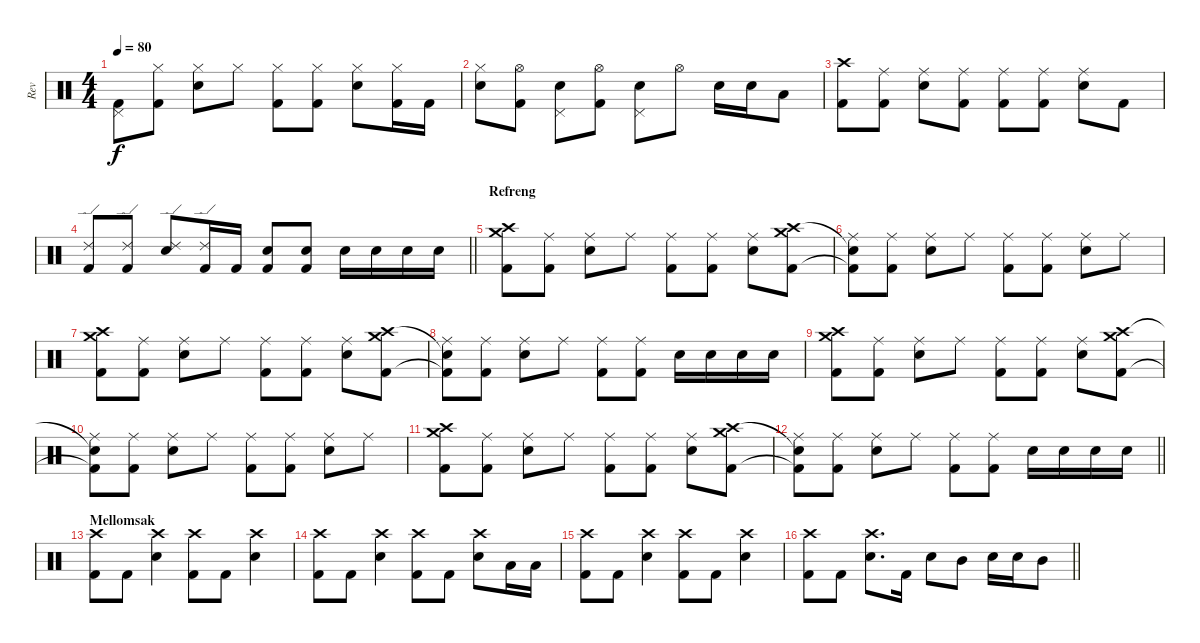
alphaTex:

\track ("Rev" "Rev") {instrument percussion}
\staff {score}
\articulation defaults
\ts (4 4)
\tempo 80
\clef neutral
\ks c
("Pedal Hi-Hat (hit)" "Kick (hit) 2").8{dy f} ("Hi-Hat (closed)" "Kick (hit) 2").8 ("Hi-Hat (closed)" "Electric Snare (hit)").8 "Hi-Hat (closed)".8 ("Hi-Hat (closed)" "Kick (hit) 2").8 ("Hi-Hat (closed)" "Kick (hit) 2").8 ("Hi-Hat (closed)" "Electric Snare (hit)").8 ("Hi-Hat (closed)" "Kick (hit) 2").16 "Kick (hit) 2".16 |
("Hi-Hat (closed)" "Electric Snare (hit)").8 ("Hi-Hat (open)" "Kick (hit) 2").8 ("Pedal Hi-Hat (hit)" "Electric Snare (hit)").8 ("Hi-Hat (open)" "Kick (hit) 2").8 ("Pedal Hi-Hat (hit)" "Electric Snare (hit)").8 "Hi-Hat (open)".8 "Electric Snare (hit)".16 "Electric Snare (hit)".16 "Low Tom (hit)".8 |
("Crash high (hit)" "Kick (hit) 2").8 ("Ride (middle)" "Kick (hit) 2").8 ("Ride (middle)" "Electric Snare (hit)").8 ("Ride (middle)" "Kick (hit) 2").8 ("Ride (middle)" "Kick (hit) 2").8 ("Ride (middle)" "Kick (hit) 2").8 ("Ride (middle)" "Electric Snare (hit)").8 "Kick (hit) 2".8 |
\barLineRight lightlight
("Ride (edge) 2" "Kick (hit) 2").8 ("Ride (edge) 2" "Kick (hit) 2").8 ("Ride (edge) 2" "Electric Snare (hit)").8 ("Ride (edge) 2" "Kick (hit) 2").16 "Kick (hit) 2".16 ("Electric Snare (hit)" "Kick (hit) 2").8 ("Electric Snare (hit)" "Kick (hit) 2").8 "Electric Snare (hit)".16 "Electric Snare (hit)".16 "Electric Snare (hit)".16 "Electric Snare (hit)".16 |
\section ("" "Refreng")
("Crash high (hit)" "Crash medium (hit)" "Kick (hit) 2").8 ("Ride (middle)" "Kick (hit) 2").8 ("Ride (middle)" "Electric Snare (hit)").8 "Ride (middle)".8 ("Ride (middle)" "Kick (hit) 2").8 ("Ride (middle)" "Kick (hit) 2").8 ("Ride (middle)" "Electric Snare (hit)").8 ("Crash high (hit)" "Crash medium (hit)" "Kick (hit) 2").8 |
("Snare (hit)"{t} "Ride (middle)" "Kick (hit) 2"{t}).8 ("Ride (middle)" "Kick (hit) 2").8 ("Ride (middle)" "Electric Snare (hit)").8 "Ride (middle)".8 ("Ride (middle)" "Kick (hit) 2").8 ("Ride (middle)" "Kick (hit) 2").8 ("Ride (middle)" "Electric Snare (hit)").8 "Ride (middle)".8 |
("Crash high (hit)" "Crash medium (hit)" "Kick (hit) 2").8 ("Ride (middle)" "Kick (hit) 2").8 ("Ride (middle)" "Electric Snare (hit)").8 "Ride (middle)".8 ("Ride (middle)" "Kick (hit) 2").8 ("Ride (middle)" "Kick (hit) 2").8 ("Ride (middle)" "Electric Snare (hit)").8 ("Crash high (hit)" "Crash medium (hit)" "Kick (hit) 2").8 |
("Snare (hit)"{t} "Ride (middle)" "Kick (hit) 2"{t}).8 ("Ride (middle)" "Kick (hit) 2").8 ("Ride (middle)" "Electric Snare (hit)").8 "Ride (middle)".8 ("Ride (middle)" "Kick (hit) 2").8 ("Ride (middle)" "Kick (hit) 2").8 "Electric Snare (hit)".16 "Electric Snare (hit)".16 "Electric Snare (hit)".16 "Electric Snare (hit)".16 |
("Crash high (hit)" "Crash medium (hit)" "Kick (hit) 2").8 ("Ride (middle)" "Kick (hit) 2").8 ("Ride (middle)" "Electric Snare (hit)").8 "Ride (middle)".8 ("Ride (middle)" "Kick (hit) 2").8 ("Ride (middle)" "Kick (hit) 2").8 ("Ride (middle)" "Electric Snare (hit)").8 ("Crash high (hit)" "Crash medium (hit)" "Kick (hit) 2").8 |
("Snare (hit)"{t} "Ride (middle)" "Kick (hit) 2"{t}).8 ("Ride (middle)" "Kick (hit) 2").8 ("Ride (middle)" "Electric Snare (hit)").8 "Ride (middle)".8 ("Ride (middle)" "Kick (hit) 2").8 ("Ride (middle)" "Kick (hit) 2").8 ("Ride (middle)" "Electric Snare (hit)").8 "Ride (middle)".8 |
("Crash high (hit)" "Crash medium (hit)" "Kick (hit) 2").8 ("Ride (middle)" "Kick (hit) 2").8 ("Ride (middle)" "Electric Snare (hit)").8 "Ride (middle)".8 ("Ride (middle)" "Kick (hit) 2").8 ("Ride (middle)" "Kick (hit) 2").8 ("Ride (middle)" "Electric Snare (hit)").8 ("Crash high (hit)" "Crash medium (hit)" "Kick (hit) 2").8 |
\barLineRight lightlight
("Snare (hit)"{t} "Ride (middle)" "Kick (hit) 2"{t}).8 ("Ride (middle)" "Kick (hit) 2").8 ("Ride (middle)" "Electric Snare (hit)").8 "Ride (middle)".8 ("Ride (middle)" "Kick (hit) 2").8 ("Ride (middle)" "Kick (hit) 2").8 "Electric Snare (hit)".16 "Electric Snare (hit)".16 "Electric Snare (hit)".16 "Electric Snare (hit)".16 |
\section ("" "Mellomsak")
("Crash high (hit)" "Kick (hit) 2").8 "Kick (hit) 2".8 ("Crash high (hit)" "Electric Snare (hit)").4 ("Crash high (hit)" "Kick (hit) 2").8 "Kick (hit) 2".8 ("Crash high (hit)" "Electric Snare (hit)").4 |
("Crash high (hit)" "Kick (hit) 2").8 "Kick (hit) 2".8 ("Crash high (hit)" "Electric Snare (hit)").4 ("Crash high (hit)" "Kick (hit) 2").8 "Kick (hit) 2".8 ("Crash high (hit)" "Electric Snare (hit)").8 "Low Tom (hit)".16 "Low Floor Tom (hit)".16 |
("Crash high (hit)" "Kick (hit) 2").8 "Kick (hit) 2".8 ("Crash high (hit)" "Electric Snare (hit)").4 ("Crash high (hit)" "Kick (hit) 2").8 "Kick (hit) 2".8 ("Crash high (hit)" "Electric Snare (hit)").4 |
\barLineRight lightlight
("Crash high (hit)" "Kick (hit) 2").8 "Kick (hit) 2".8 ("Crash high (hit)" "Electric Snare (hit)").8{d} "Kick (hit) 2".16 "Electric Snare (hit)".8 "Mid Tom (hit)".8 "Electric Snare (hit)".16 "Electric Snare (hit)".16 "Mid Tom (hit)".8
